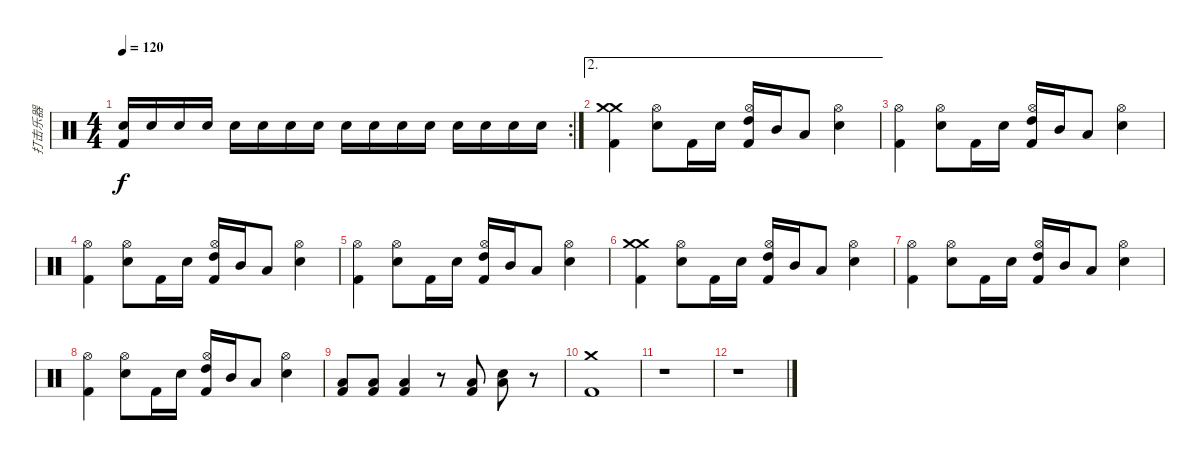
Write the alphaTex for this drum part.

\track ("打击乐器" "打击乐器") {instrument percussion}
\staff {score}
\articulation defaults
\rc 2
\ts (4 4)
\tempo 120
\clef neutral
\ks c
("Snare (hit) 2" "Kick (hit) 2").16{dy f} "Snare (hit) 2".16 "Snare (hit) 2".16 "Snare (hit) 2".16 "Snare (hit) 2".16 "Snare (hit) 2".16 "Snare (hit) 2".16 "Snare (hit) 2".16 "Snare (hit) 2".16 "Snare (hit) 2".16 "Snare (hit) 2".16 "Snare (hit) 2".16 "Snare (hit) 2".16 "Snare (hit) 2".16 "Snare (hit) 2".16 "Snare (hit) 2".16 |
\ae 2
("Crash medium (hit)" "Crash medium (hit)" "Kick (hit) 2").4 ("Hi-Hat (open)" "Snare (hit) 2").8 "Kick (hit) 2".16 "Snare (hit) 2".16 ("Hi-Hat (open)" "High Tom (hit)" "Kick (hit) 2").16 "Mid Tom (hit)".16 "Low Tom (hit)".8 ("Hi-Hat (open)" "Snare (hit) 2").4 |
("Hi-Hat (open)" "Kick (hit) 2").4 ("Hi-Hat (open)" "Snare (hit) 2").8 "Kick (hit) 2".16 "Snare (hit) 2".16 ("Hi-Hat (open)" "High Tom (hit)" "Kick (hit) 2").16 "Mid Tom (hit)".16 "Low Tom (hit)".8 ("Hi-Hat (open)" "Snare (hit) 2").4 |
("Hi-Hat (open)" "Kick (hit) 2").4 ("Hi-Hat (open)" "Snare (hit) 2").8 "Kick (hit) 2".16 "Snare (hit) 2".16 ("Hi-Hat (open)" "High Tom (hit)" "Kick (hit) 2").16 "Mid Tom (hit)".16 "Low Tom (hit)".8 ("Hi-Hat (open)" "Snare (hit) 2").4 |
("Hi-Hat (open)" "Kick (hit) 2").4 ("Hi-Hat (open)" "Snare (hit) 2").8 "Kick (hit) 2".16 "Snare (hit) 2".16 ("Hi-Hat (open)" "High Tom (hit)" "Kick (hit) 2").16 "Mid Tom (hit)".16 "Low Tom (hit)".8 ("Hi-Hat (open)" "Snare (hit) 2").4 |
("Crash medium (hit)" "Crash medium (hit)" "Kick (hit) 2").4 ("Hi-Hat (open)" "Snare (hit) 2").8 "Kick (hit) 2".16 "Snare (hit) 2".16 ("Hi-Hat (open)" "High Tom (hit)" "Kick (hit) 2").16 "Mid Tom (hit)".16 "Low Tom (hit)".8 ("Hi-Hat (open)" "Snare (hit) 2").4 |
("Hi-Hat (open)" "Kick (hit) 2").4 ("Hi-Hat (open)" "Snare (hit) 2").8 "Kick (hit) 2".16 "Snare (hit) 2".16 ("Hi-Hat (open)" "High Tom (hit)" "Kick (hit) 2").16 "Mid Tom (hit)".16 "Low Tom (hit)".8 ("Hi-Hat (open)" "Snare (hit) 2").4 |
("Hi-Hat (open)" "Kick (hit) 2").4 ("Hi-Hat (open)" "Snare (hit) 2").8 "Kick (hit) 2".16 "Snare (hit) 2".16 ("Hi-Hat (open)" "High Tom (hit)" "Kick (hit) 2").16 "Mid Tom (hit)".16 "Low Tom (hit)".8 ("Hi-Hat (open)" "Snare (hit) 2").4 |
("Low Tom (hit)" "Kick (hit) 2").8 ("Low Tom (hit)" "Kick (hit) 2").8 ("Low Tom (hit)" "Kick (hit) 2").4 r.8 ("Low Tom (hit)" "Kick (hit) 2").8 ("Low Tom (hit)" "Snare (hit)").8 r.8 |
("Crash medium (hit)" "Kick (hit) 2").1 |
r.1 |
r.1
